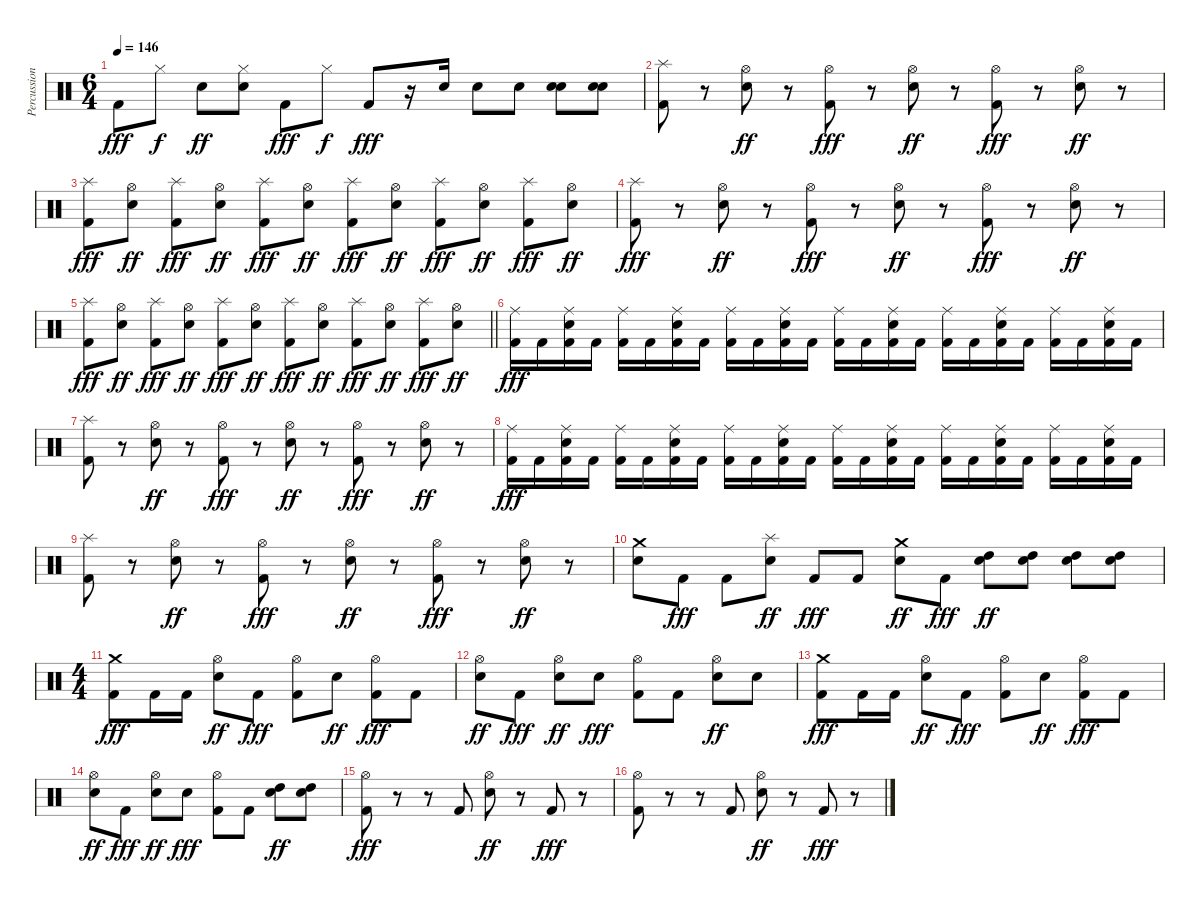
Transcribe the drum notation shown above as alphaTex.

\track ("Percussions" "Percussion") {instrument percussion}
\staff {score}
\articulation defaults
\ts (6 4)
\tempo 146
\clef neutral
\ks c "Kick (hit) 2".8{dy fff} "Hi-Hat (closed)".8{dy f} "Snare (hit) 2".8{dy ff}
("Hi-Hat (closed)" "Snare (hit) 2").8 "Kick (hit) 2".8{dy fff} "Hi-Hat (closed)".8{dy f} "Kick (hit) 2".8{dy fff} r.16 "Snare (hit) 2".16 "Snare (hit) 2".8 "Snare (hit) 2".8 ("Snare (hit) 2" "Snare (hit) 2").8{bd 480} ("Snare (hit) 2" "Snare (hit) 2").8{bd 480} |
("Splash (hit)" "Kick (hit) 2").8 r.8 ("Hi-Hat (open)" "Snare (hit) 2").8{dy ff} r.8 ("Hi-Hat (open)" "Kick (hit) 2").8{dy fff} r.8 ("Hi-Hat (open)" "Snare (hit) 2").8{dy ff} r.8 ("Hi-Hat (open)" "Kick (hit) 2").8{dy fff} r.8 ("Hi-Hat (open)" "Snare (hit) 2").8{dy ff} r.8 |
("Splash (hit)" "Kick (hit) 2").8{dy fff} ("Hi-Hat (open)" "Snare (hit) 2").8{dy ff} ("Splash (hit)" "Kick (hit) 2").8{dy fff} ("Hi-Hat (open)" "Snare (hit) 2").8{dy ff} ("Splash (hit)" "Kick (hit) 2").8{dy fff} ("Hi-Hat (open)" "Snare (hit) 2").8{dy ff} ("Splash (hit)" "Kick (hit) 2").8{dy fff} ("Hi-Hat (open)" "Snare (hit) 2").8{dy ff} ("Splash (hit)" "Kick (hit) 2").8{dy fff} ("Hi-Hat (open)" "Snare (hit) 2").8{dy ff} ("Splash (hit)" "Kick (hit) 2").8{dy fff} ("Hi-Hat (open)" "Snare (hit) 2").8{dy ff} |
("Splash (hit)" "Kick (hit) 2").8{dy fff} r.8 ("Hi-Hat (open)" "Snare (hit) 2").8{dy ff} r.8 ("Hi-Hat (open)" "Kick (hit) 2").8{dy fff} r.8 ("Hi-Hat (open)" "Snare (hit) 2").8{dy ff} r.8 ("Hi-Hat (open)" "Kick (hit) 2").8{dy fff} r.8 ("Hi-Hat (open)" "Snare (hit) 2").8{dy ff} r.8 |
\barLineRight lightlight
("Splash (hit)" "Kick (hit) 2").8{dy fff} ("Hi-Hat (open)" "Snare (hit) 2").8{dy ff} ("Splash (hit)" "Kick (hit) 2").8{dy fff} ("Hi-Hat (open)" "Snare (hit) 2").8{dy ff} ("Splash (hit)" "Kick (hit) 2").8{dy fff} ("Hi-Hat (open)" "Snare (hit) 2").8{dy ff} ("Splash (hit)" "Kick (hit) 2").8{dy fff} ("Hi-Hat (open)" "Snare (hit) 2").8{dy ff} ("Splash (hit)" "Kick (hit) 2").8{dy fff} ("Hi-Hat (open)" "Snare (hit) 2").8{dy ff} ("Splash (hit)" "Kick (hit) 2").8{dy fff} ("Hi-Hat (open)" "Snare (hit) 2").8{dy ff} |
\section ("" "")
("Ride (middle)" "Kick (hit) 2").16{dy fff} "Kick (hit) 2".16 ("Ride (middle)" "Snare (hit) 2" "Kick (hit) 2").16 "Kick (hit) 2".16 ("Ride (middle)" "Kick (hit) 2").16 "Kick (hit) 2".16 ("Ride (middle)" "Snare (hit) 2" "Kick (hit) 2").16 "Kick (hit) 2".16 ("Ride (middle)" "Kick (hit) 2").16 "Kick (hit) 2".16 ("Ride (middle)" "Snare (hit) 2" "Kick (hit) 2").16 "Kick (hit) 2".16 ("Ride (middle)" "Kick (hit) 2").16 "Kick (hit) 2".16 ("Ride (middle)" "Snare (hit) 2" "Kick (hit) 2").16 "Kick (hit) 2".16 ("Ride (middle)" "Kick (hit) 2").16 "Kick (hit) 2".16 ("Ride (middle)" "Snare (hit) 2" "Kick (hit) 2").16 "Kick (hit) 2".16 ("Ride (middle)" "Kick (hit) 2").16 "Kick (hit) 2".16 ("Ride (middle)" "Snare (hit) 2" "Kick (hit) 2").16 "Kick (hit) 2".16 |
("Splash (hit)" "Kick (hit) 2").8 r.8 ("Hi-Hat (open)" "Snare (hit) 2").8{dy ff} r.8 ("Hi-Hat (open)" "Kick (hit) 2").8{dy fff} r.8 ("Hi-Hat (open)" "Snare (hit) 2").8{dy ff} r.8 ("Hi-Hat (open)" "Kick (hit) 2").8{dy fff} r.8 ("Hi-Hat (open)" "Snare (hit) 2").8{dy ff} r.8 |
("Ride (middle)" "Kick (hit) 2").16{dy fff} "Kick (hit) 2".16 ("Ride (middle)" "Snare (hit) 2" "Kick (hit) 2").16 "Kick (hit) 2".16 ("Ride (middle)" "Kick (hit) 2").16 "Kick (hit) 2".16 ("Ride (middle)" "Snare (hit) 2" "Kick (hit) 2").16 "Kick (hit) 2".16 ("Ride (middle)" "Kick (hit) 2").16 "Kick (hit) 2".16 ("Ride (middle)" "Snare (hit) 2" "Kick (hit) 2").16 "Kick (hit) 2".16 ("Ride (middle)" "Kick (hit) 2").16 "Kick (hit) 2".16 ("Ride (middle)" "Snare (hit) 2" "Kick (hit) 2").16 "Kick (hit) 2".16 ("Ride (middle)" "Kick (hit) 2").16 "Kick (hit) 2".16 ("Ride (middle)" "Snare (hit) 2" "Kick (hit) 2").16 "Kick (hit) 2".16 ("Ride (middle)" "Kick (hit) 2").16 "Kick (hit) 2".16 ("Ride (middle)" "Snare (hit) 2" "Kick (hit) 2").16 "Kick (hit) 2".16 |
("Splash (hit)" "Kick (hit) 2").8 r.8 ("Hi-Hat (open)" "Snare (hit) 2").8{dy ff} r.8 ("Hi-Hat (open)" "Kick (hit) 2").8{dy fff} r.8 ("Hi-Hat (open)" "Snare (hit) 2").8{dy ff} r.8 ("Hi-Hat (open)" "Kick (hit) 2").8{dy fff} r.8 ("Hi-Hat (open)" "Snare (hit) 2").8{dy ff} r.8 |
("Crash medium (hit)" "Snare (hit) 2").8 "Kick (hit) 2".8{dy fff} "Kick (hit) 2".8 ("Splash (hit)" "Snare (hit) 2").8{dy ff} "Kick (hit) 2".8{dy fff} "Kick (hit) 2".8 ("Crash medium (hit)" "Snare (hit) 2").8{dy ff} "Kick (hit) 2".8{dy fff} ("High Tom (hit)" "Snare (hit) 2").8{dy ff} ("High Tom (hit)" "Snare (hit) 2").8 ("High Tom (hit)" "Snare (hit) 2").8 ("High Tom (hit)" "Snare (hit) 2").8 |
\ts (4 4)
("Crash medium (hit)" "Kick (hit) 2").8{dy fff} "Kick (hit) 2".16 "Kick (hit) 2".16 ("Hi-Hat (open)" "Snare (hit) 2").8{dy ff} "Kick (hit) 2".8{dy fff} ("Hi-Hat (open)" "Kick (hit) 2").8 "Snare (hit) 2".8{dy ff} ("Hi-Hat (open)" "Kick (hit) 2").8{dy fff} "Kick (hit) 2".8 |
("Hi-Hat (open)" "Snare (hit) 2").8{dy ff} "Kick (hit) 2".8{dy fff} ("Hi-Hat (open)" "Snare (hit) 2").8{dy ff} "Snare (hit) 2".8{dy fff} ("Hi-Hat (open)" "Kick (hit) 2").8 "Kick (hit) 2".8 ("Hi-Hat (open)" "Snare (hit) 2").8{dy ff} "Snare (hit) 2".8 |
("Crash medium (hit)" "Kick (hit) 2").8{dy fff} "Kick (hit) 2".16 "Kick (hit) 2".16 ("Hi-Hat (open)" "Snare (hit) 2").8{dy ff} "Kick (hit) 2".8{dy fff} ("Hi-Hat (open)" "Kick (hit) 2").8 "Snare (hit) 2".8{dy ff} ("Hi-Hat (open)" "Kick (hit) 2").8{dy fff} "Kick (hit) 2".8 |
("Hi-Hat (open)" "Snare (hit) 2").8{dy ff} "Kick (hit) 2".8{dy fff} ("Hi-Hat (open)" "Snare (hit) 2").8{dy ff} "Snare (hit) 2".8{dy fff} ("Hi-Hat (open)" "Kick (hit) 2").8 "Kick (hit) 2".8 ("High Tom (hit)" "Snare (hit) 2").8{dy ff} ("High Tom (hit)" "Snare (hit) 2").8 |
("Hi-Hat (open)" "Kick (hit) 2").8{dy fff} r.8 r.8 "Kick (hit) 2".8 ("Hi-Hat (open)" "Snare (hit) 2").8{dy ff} r.8 "Kick (hit) 2".8{dy fff} r.8 |
("Hi-Hat (open)" "Kick (hit) 2").8 r.8 r.8 "Kick (hit) 2".8 ("Hi-Hat (open)" "Snare (hit) 2").8{dy ff} r.8 "Kick (hit) 2".8{dy fff} r.8
